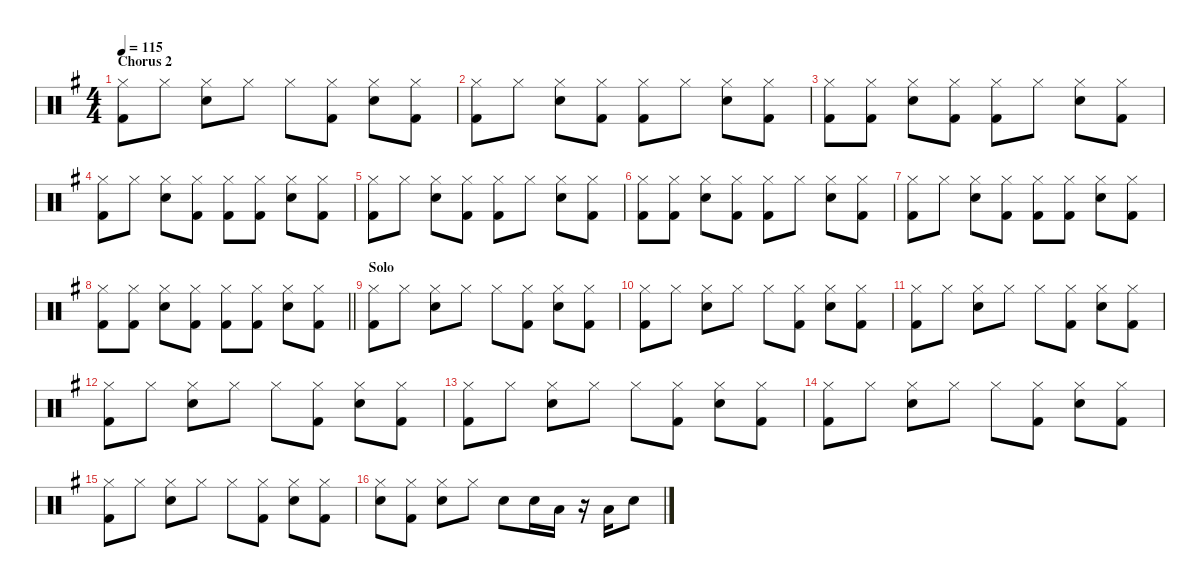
\defaultSystemsLayout 8
\hideDynamics
\bracketExtendMode nobrackets
\singleTrackTrackNamePolicy hidden
\multiTrackTrackNamePolicy hidden
\otherSystemsTrackNameOrientation horizontal
\track ("Drums" "drm.") {defaultSystemsLayout 4 instrument percussion}
\staff {score}
\articulation defaults
\ts (4 4)
\section ("" "Chorus 2")
\tempo 115
\clef neutral
\ks g
("Hi-Hat (closed)"{acc forcenatural} "Kick (hit) 2"{acc forcenatural}).8{dy f beam Down} "Hi-Hat (closed)"{acc forcenatural}.8{beam Down} ("Hi-Hat (closed)"{acc forcenatural} "Snare (hit) 2"{acc forcenatural}).8{beam Down} "Hi-Hat (closed)"{acc forcenatural}.8{beam Down} "Hi-Hat (closed)"{acc forcenatural}.8{beam Down} ("Hi-Hat (closed)"{acc forcenatural} "Kick (hit) 2"{acc forcenatural}).8{beam Down} ("Hi-Hat (closed)"{acc forcenatural} "Snare (hit) 2"{acc forcenatural}).8{beam Down} ("Hi-Hat (closed)"{acc forcenatural} "Kick (hit) 2"{acc forcenatural}).8{beam Down} |
("Hi-Hat (closed)"{acc forcenatural} "Kick (hit) 2"{acc forcenatural}).8{beam Down} "Hi-Hat (closed)"{acc forcenatural}.8{beam Down} ("Hi-Hat (closed)"{acc forcenatural} "Snare (hit) 2"{acc forcenatural}).8{beam Down} ("Hi-Hat (closed)"{acc forcenatural} "Kick (hit) 2"{acc forcenatural}).8{beam Down} ("Hi-Hat (closed)"{acc forcenatural} "Kick (hit) 2"{acc forcenatural}).8{beam Down} "Hi-Hat (closed)"{acc forcenatural}.8{beam Down} ("Hi-Hat (closed)"{acc forcenatural} "Snare (hit) 2"{acc forcenatural}).8{beam Down} ("Hi-Hat (closed)"{acc forcenatural} "Kick (hit) 2"{acc forcenatural}).8{beam Down} |
("Hi-Hat (closed)"{acc forcenatural} "Kick (hit) 2"{acc forcenatural}).8{beam Down} ("Hi-Hat (closed)"{acc forcenatural} "Kick (hit) 2"{acc forcenatural}).8{beam Down} ("Hi-Hat (closed)"{acc forcenatural} "Snare (hit) 2"{acc forcenatural}).8{beam Down} ("Hi-Hat (closed)"{acc forcenatural} "Kick (hit) 2"{acc forcenatural}).8{beam Down} ("Hi-Hat (closed)"{acc forcenatural} "Kick (hit) 2"{acc forcenatural}).8{beam Down} "Hi-Hat (closed)"{acc forcenatural}.8{beam Down} ("Hi-Hat (closed)"{acc forcenatural} "Snare (hit) 2"{acc forcenatural}).8{beam Down} ("Hi-Hat (closed)"{acc forcenatural} "Kick (hit) 2"{acc forcenatural}).8{beam Down} |
("Hi-Hat (closed)"{acc forcenatural} "Kick (hit) 2"{acc forcenatural}).8{beam Down} "Hi-Hat (closed)"{acc forcenatural}.8{beam Down} ("Hi-Hat (closed)"{acc forcenatural} "Snare (hit) 2"{acc forcenatural}).8{beam Down} ("Hi-Hat (closed)"{acc forcenatural} "Kick (hit) 2"{acc forcenatural}).8{beam Down} ("Hi-Hat (closed)"{acc forcenatural} "Kick (hit) 2"{acc forcenatural}).8{beam Down} ("Hi-Hat (closed)"{acc forcenatural} "Kick (hit) 2"{acc forcenatural}).8{beam Down} ("Hi-Hat (closed)"{acc forcenatural} "Snare (hit) 2"{acc forcenatural}).8{beam Down} ("Hi-Hat (closed)"{acc forcenatural} "Kick (hit) 2"{acc forcenatural}).8{beam Down} |
("Hi-Hat (closed)"{acc forcenatural} "Kick (hit) 2"{acc forcenatural}).8{beam Down} "Hi-Hat (closed)"{acc forcenatural}.8{beam Down} ("Hi-Hat (closed)"{acc forcenatural} "Snare (hit) 2"{acc forcenatural}).8{beam Down} ("Hi-Hat (closed)"{acc forcenatural} "Kick (hit) 2"{acc forcenatural}).8{beam Down} ("Hi-Hat (closed)"{acc forcenatural} "Kick (hit) 2"{acc forcenatural}).8{beam Down} "Hi-Hat (closed)"{acc forcenatural}.8{beam Down} ("Hi-Hat (closed)"{acc forcenatural} "Snare (hit) 2"{acc forcenatural}).8{beam Down} ("Hi-Hat (closed)"{acc forcenatural} "Kick (hit) 2"{acc forcenatural}).8{beam Down} |
("Hi-Hat (closed)"{acc forcenatural} "Kick (hit) 2"{acc forcenatural}).8{beam Down} ("Hi-Hat (closed)"{acc forcenatural} "Kick (hit) 2"{acc forcenatural}).8{beam Down} ("Hi-Hat (closed)"{acc forcenatural} "Snare (hit) 2"{acc forcenatural}).8{beam Down} ("Hi-Hat (closed)"{acc forcenatural} "Kick (hit) 2"{acc forcenatural}).8{beam Down} ("Hi-Hat (closed)"{acc forcenatural} "Kick (hit) 2"{acc forcenatural}).8{beam Down} "Hi-Hat (closed)"{acc forcenatural}.8{beam Down} ("Hi-Hat (closed)"{acc forcenatural} "Snare (hit) 2"{acc forcenatural}).8{beam Down} ("Hi-Hat (closed)"{acc forcenatural} "Kick (hit) 2"{acc forcenatural}).8{beam Down} |
("Hi-Hat (closed)"{acc forcenatural} "Kick (hit) 2"{acc forcenatural}).8{beam Down} "Hi-Hat (closed)"{acc forcenatural}.8{beam Down} ("Hi-Hat (closed)"{acc forcenatural} "Snare (hit) 2"{acc forcenatural}).8{beam Down} ("Hi-Hat (closed)"{acc forcenatural} "Kick (hit) 2"{acc forcenatural}).8{beam Down} ("Hi-Hat (closed)"{acc forcenatural} "Kick (hit) 2"{acc forcenatural}).8{beam Down} ("Hi-Hat (closed)"{acc forcenatural} "Kick (hit) 2"{acc forcenatural}).8{beam Down} ("Hi-Hat (closed)"{acc forcenatural} "Snare (hit) 2"{acc forcenatural}).8{beam Down} ("Hi-Hat (closed)"{acc forcenatural} "Kick (hit) 2"{acc forcenatural}).8{beam Down} |
\barLineRight lightlight
("Hi-Hat (closed)"{acc forcenatural} "Kick (hit) 2"{acc forcenatural}).8{beam Down} ("Hi-Hat (closed)"{acc forcenatural} "Kick (hit) 2"{acc forcenatural}).8{beam Down} ("Hi-Hat (closed)"{acc forcenatural} "Snare (hit) 2"{acc forcenatural}).8{beam Down} ("Hi-Hat (closed)"{acc forcenatural} "Kick (hit) 2"{acc forcenatural}).8{beam Down} ("Hi-Hat (closed)"{acc forcenatural} "Kick (hit) 2"{acc forcenatural}).8{beam Down} ("Hi-Hat (closed)"{acc forcenatural} "Kick (hit) 2"{acc forcenatural}).8{beam Down} ("Hi-Hat (closed)"{acc forcenatural} "Snare (hit) 2"{acc forcenatural}).8{beam Down} ("Hi-Hat (closed)"{acc forcenatural} "Kick (hit) 2"{acc forcenatural}).8{beam Down} |
\section ("" "Solo")
("Hi-Hat (closed)"{acc forcenatural} "Kick (hit) 2"{acc forcenatural}).8{beam Down} "Hi-Hat (closed)"{acc forcenatural}.8{beam Down} ("Hi-Hat (closed)"{acc forcenatural} "Snare (hit) 2"{acc forcenatural}).8{beam Down} "Hi-Hat (closed)"{acc forcenatural}.8{beam Down} "Hi-Hat (closed)"{acc forcenatural}.8{beam Down} ("Hi-Hat (closed)"{acc forcenatural} "Kick (hit) 2"{acc forcenatural}).8{beam Down} ("Hi-Hat (closed)"{acc forcenatural} "Snare (hit) 2"{acc forcenatural}).8{beam Down} ("Hi-Hat (closed)"{acc forcenatural} "Kick (hit) 2"{acc forcenatural}).8{beam Down} |
("Hi-Hat (closed)"{acc forcenatural} "Kick (hit) 2"{acc forcenatural}).8{beam Down} "Hi-Hat (closed)"{acc forcenatural}.8{beam Down} ("Hi-Hat (closed)"{acc forcenatural} "Snare (hit) 2"{acc forcenatural}).8{beam Down} "Hi-Hat (closed)"{acc forcenatural}.8{beam Down} "Hi-Hat (closed)"{acc forcenatural}.8{beam Down} ("Hi-Hat (closed)"{acc forcenatural} "Kick (hit) 2"{acc forcenatural}).8{beam Down} ("Hi-Hat (closed)"{acc forcenatural} "Snare (hit) 2"{acc forcenatural}).8{beam Down} ("Hi-Hat (closed)"{acc forcenatural} "Kick (hit) 2"{acc forcenatural}).8{beam Down} |
("Hi-Hat (closed)"{acc forcenatural} "Kick (hit) 2"{acc forcenatural}).8{beam Down} "Hi-Hat (closed)"{acc forcenatural}.8{beam Down} ("Hi-Hat (closed)"{acc forcenatural} "Snare (hit) 2"{acc forcenatural}).8{beam Down} "Hi-Hat (closed)"{acc forcenatural}.8{beam Down} "Hi-Hat (closed)"{acc forcenatural}.8{beam Down} ("Hi-Hat (closed)"{acc forcenatural} "Kick (hit) 2"{acc forcenatural}).8{beam Down} ("Hi-Hat (closed)"{acc forcenatural} "Snare (hit) 2"{acc forcenatural}).8{beam Down} ("Hi-Hat (closed)"{acc forcenatural} "Kick (hit) 2"{acc forcenatural}).8{beam Down} |
("Hi-Hat (closed)"{acc forcenatural} "Kick (hit) 2"{acc forcenatural}).8{beam Down} "Hi-Hat (closed)"{acc forcenatural}.8{beam Down} ("Hi-Hat (closed)"{acc forcenatural} "Snare (hit) 2"{acc forcenatural}).8{beam Down} "Hi-Hat (closed)"{acc forcenatural}.8{beam Down} "Hi-Hat (closed)"{acc forcenatural}.8{beam Down} ("Hi-Hat (closed)"{acc forcenatural} "Kick (hit) 2"{acc forcenatural}).8{beam Down} ("Hi-Hat (closed)"{acc forcenatural} "Snare (hit) 2"{acc forcenatural}).8{beam Down} ("Hi-Hat (closed)"{acc forcenatural} "Kick (hit) 2"{acc forcenatural}).8{beam Down} |
("Hi-Hat (closed)"{acc forcenatural} "Kick (hit) 2"{acc forcenatural}).8{beam Down} "Hi-Hat (closed)"{acc forcenatural}.8{beam Down} ("Hi-Hat (closed)"{acc forcenatural} "Snare (hit) 2"{acc forcenatural}).8{beam Down} "Hi-Hat (closed)"{acc forcenatural}.8{beam Down} "Hi-Hat (closed)"{acc forcenatural}.8{beam Down} ("Hi-Hat (closed)"{acc forcenatural} "Kick (hit) 2"{acc forcenatural}).8{beam Down} ("Hi-Hat (closed)"{acc forcenatural} "Snare (hit) 2"{acc forcenatural}).8{beam Down} ("Hi-Hat (closed)"{acc forcenatural} "Kick (hit) 2"{acc forcenatural}).8{beam Down} |
("Hi-Hat (closed)"{acc forcenatural} "Kick (hit) 2"{acc forcenatural}).8{beam Down} "Hi-Hat (closed)"{acc forcenatural}.8{beam Down} ("Hi-Hat (closed)"{acc forcenatural} "Snare (hit) 2"{acc forcenatural}).8{beam Down} "Hi-Hat (closed)"{acc forcenatural}.8{beam Down} "Hi-Hat (closed)"{acc forcenatural}.8{beam Down} ("Hi-Hat (closed)"{acc forcenatural} "Kick (hit) 2"{acc forcenatural}).8{beam Down} ("Hi-Hat (closed)"{acc forcenatural} "Snare (hit) 2"{acc forcenatural}).8{beam Down} ("Hi-Hat (closed)"{acc forcenatural} "Kick (hit) 2"{acc forcenatural}).8{beam Down} |
("Hi-Hat (closed)"{acc forcenatural} "Kick (hit) 2"{acc forcenatural}).8{beam Down} "Hi-Hat (closed)"{acc forcenatural}.8{beam Down} ("Hi-Hat (closed)"{acc forcenatural} "Snare (hit) 2"{acc forcenatural}).8{beam Down} "Hi-Hat (closed)"{acc forcenatural}.8{beam Down} "Hi-Hat (closed)"{acc forcenatural}.8{beam Down} ("Hi-Hat (closed)"{acc forcenatural} "Kick (hit) 2"{acc forcenatural}).8{beam Down} ("Hi-Hat (closed)"{acc forcenatural} "Snare (hit) 2"{acc forcenatural}).8{beam Down} ("Hi-Hat (closed)"{acc forcenatural} "Kick (hit) 2"{acc forcenatural}).8{beam Down} |
("Hi-Hat (closed)"{acc forcenatural} "Snare (hit) 2"{acc forcenatural}).8{beam Down} ("Hi-Hat (closed)"{acc forcenatural} "Kick (hit) 2"{acc forcenatural}).8{beam Down} ("Hi-Hat (closed)"{acc forcenatural} "Snare (hit) 2"{acc forcenatural}).8{beam Down} "Hi-Hat (closed)"{acc forcenatural}.8{beam Down} "Snare (hit) 2"{acc forcenatural}.8{beam Down} "Snare (hit) 2"{acc forcenatural}.16{beam Down} "Low Tom (hit)"{acc forcenatural}.16{beam Down} r.16{beam Down} "Low Tom (hit)"{acc forcenatural}.16{beam Down} "Snare (hit) 2"{acc forcenatural}.8{beam Down}
